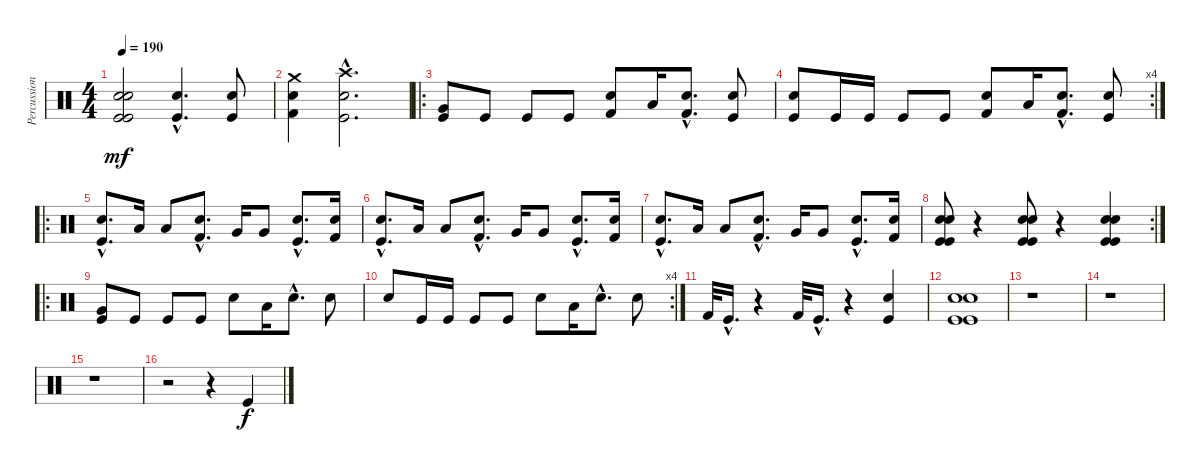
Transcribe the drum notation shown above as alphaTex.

\track ("Percussion" "Percussion") {instrument percussion}
\staff {score}
\articulation defaults
\ts (4 4)
\tempo 190
\clef neutral
\ks c
("Electric Snare (hit)" "Electric Snare (hit)" "Kick (hit)" "Kick (hit)").2{dy mf} ("Snare (hit) 2"{hac} "Kick (hit)"{hac}).4{d} ("Snare (hit) 2" "Kick (hit)").8 |
("Electric Snare (hit)" "Kick (hit) 2" "Crash medium (hit)").4 ("Snare (hit) 2"{hac} "Kick (hit)"{hac} "Crash high (hit)"{hac}).2{d} |
\ro
("Kick (hit)" "Very Low Tom (hit)").8 "Kick (hit)".8 "Kick (hit)".8 "Kick (hit)".8 ("Electric Snare (hit)" "Kick (hit) 2").8 "Low Tom (hit)".16 ("Electric Snare (hit)"{hac} "Kick (hit) 2"{hac}).8{d} ("Snare (hit) 2" "Kick (hit)").8 |
\rc 4
("Snare (hit) 2" "Kick (hit)").8 "Kick (hit)".16 "Kick (hit)".16 "Kick (hit)".8 "Kick (hit)".8 ("Electric Snare (hit)" "Kick (hit) 2").8 "Low Tom (hit)".16 ("Electric Snare (hit)"{hac} "Kick (hit) 2"{hac}).8{d} ("Snare (hit) 2" "Kick (hit)").8 |
\ro
("Electric Snare (hit)"{hac} "Kick (hit)"{hac}).8{d} "Low Tom (hit)".16 "Low Tom (hit)".8 ("Electric Snare (hit)"{hac} "Kick (hit) 2"{hac}).8{d} "Very Low Tom (hit)".16 "Very Low Tom (hit)".8 ("Snare (hit) 2"{hac} "Kick (hit)"{hac}).8{d} ("Electric Snare (hit)" "Kick (hit) 2").16 |
("Electric Snare (hit)"{hac} "Kick (hit)"{hac}).8{d} "Low Tom (hit)".16 "Low Tom (hit)".8 ("Electric Snare (hit)"{hac} "Kick (hit) 2"{hac}).8{d} "Very Low Tom (hit)".16 "Very Low Tom (hit)".8 ("Snare (hit) 2"{hac} "Kick (hit)"{hac}).8{d} ("Electric Snare (hit)" "Kick (hit) 2").16 |
("Electric Snare (hit)"{hac} "Kick (hit)"{hac}).8{d} "Low Tom (hit)".16 "Low Tom (hit)".8 ("Electric Snare (hit)"{hac} "Kick (hit) 2"{hac}).8{d} "Very Low Tom (hit)".16 "Very Low Tom (hit)".8 ("Snare (hit) 2"{hac} "Kick (hit)"{hac}).8{d} ("Electric Snare (hit)" "Kick (hit) 2").16 |
\rc 2
("Electric Snare (hit)" "Electric Snare (hit)" "Kick (hit)" "Kick (hit)").8 r.4 ("Electric Snare (hit)" "Electric Snare (hit)" "Kick (hit)" "Kick (hit)").8 r.4 ("Electric Snare (hit)" "Electric Snare (hit)" "Kick (hit)" "Kick (hit)").4 |
\ro
("Kick (hit)" "Very Low Tom (hit)").8 "Kick (hit)".8 "Kick (hit)".8 "Kick (hit)".8 "Electric Snare (hit)".8 "Low Tom (hit)".16 "Electric Snare (hit)"{hac}.8{d} "Snare (hit) 2".8 |
\rc 4 "Snare (hit) 2".8 "Kick (hit)".16 "Kick (hit)".16 "Kick (hit)".8 "Kick (hit)".8 "Electric Snare (hit)".8 "Low Tom (hit)".16 "Electric Snare (hit)"{hac}.8{d} "Snare (hit) 2".8
|
"Kick (hit) 2".32 "Kick (hit)"{hac}.16{d} r.4 "Kick (hit) 2".32 "Kick (hit)"{hac}.16{d} r.4 ("Electric Snare (hit)" "Kick (hit)").4 |
("Electric Snare (hit)" "Electric Snare (hit)" "Kick (hit)" "Kick (hit)").1 |
r.1 |
r.1 |
r.1 |
r.2 r.4 "Kick (hit)".4{dy f}
